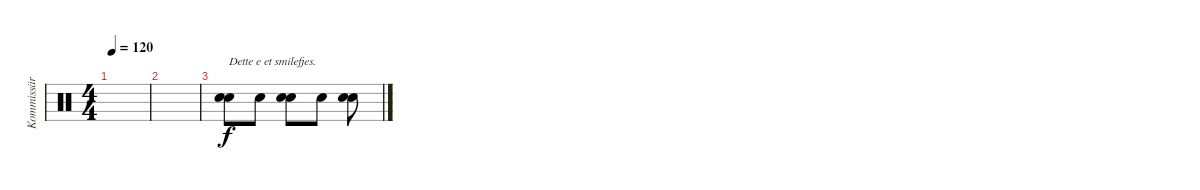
\track ("Kommissär Ogrim" "Kommissär ") {instrument percussion}
\staff {score}
\articulation defaults
\ts (4 4)
\tempo 120
\clef neutral
\ks c
|
|
("Snare (hit)" "Snare (hit)").8{txt "Dette e et smilefjes."} "Snare (hit)".8 ("Snare (hit)" "Snare (hit)").8 "Snare (hit)".8 ("Snare (hit)" "Snare (hit)").8
